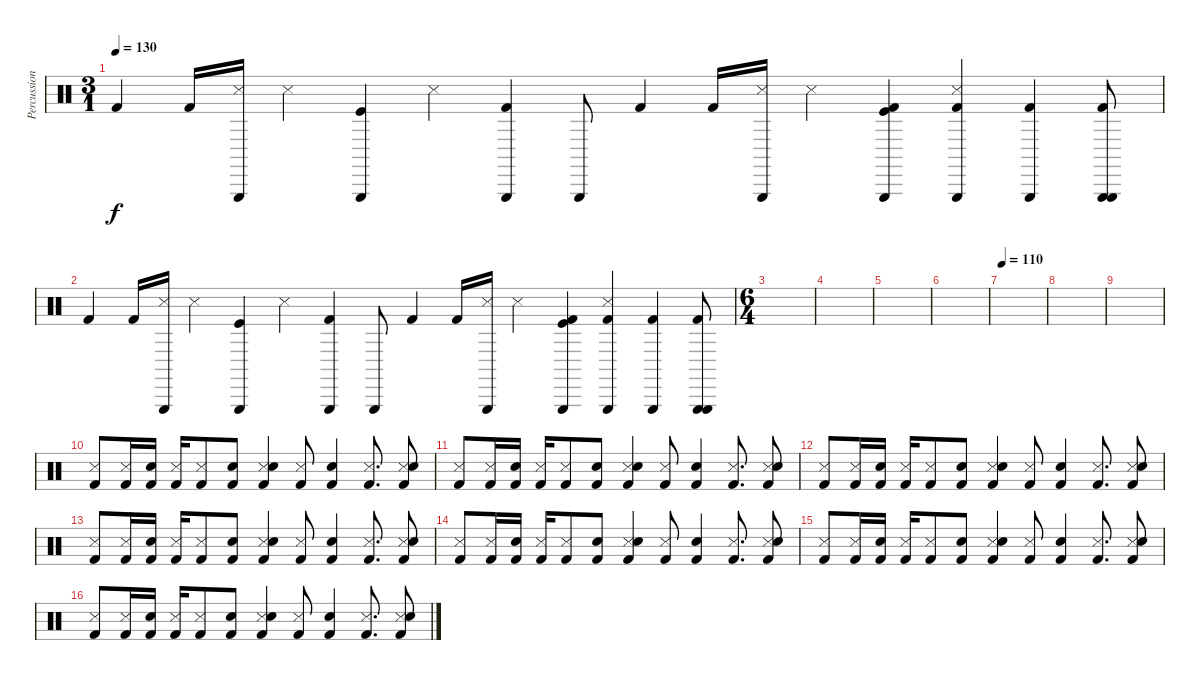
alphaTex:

\track ("Percussion" "Percussion") {instrument percussion}
\staff {score}
\articulation defaults
\ts (3 1)
\tempo 130
\clef neutral
\ks c "Kick (hit) 2".4{dy f} "Kick (hit) 2".16
("Triangle (hit)" "Snare (side stick) 3").16 "Metronome (hit)".4 ("Triangle (hit)" "Kick (hit)").4 "Snare (side stick) 3".4 ("Triangle (hit)" "Kick (hit) 2").4 "Triangle (hit)".8 "Kick (hit) 2".4 "Kick (hit) 2".16 ("Triangle (hit)" "Snare (side stick) 3").16 "Metronome (hit)".4 ("Triangle (hit)" "Kick (hit) 2" "Kick (hit)").4 ("Triangle (hit)" "Kick (hit) 2" "Snare (side stick) 3").4 ("Triangle (hit)" "Kick (hit) 2").4 ("Triangle (hit)" "Kick (hit) 2" "Triangle (hit)").8 |
"Kick (hit) 2".4 "Kick (hit) 2".16 ("Triangle (hit)" "Snare (side stick) 3").16 "Metronome (hit)".4 ("Triangle (hit)" "Kick (hit)").4 "Snare (side stick) 3".4 ("Triangle (hit)" "Kick (hit) 2").4 "Triangle (hit)".8 "Kick (hit) 2".4 "Kick (hit) 2".16 ("Triangle (hit)" "Snare (side stick) 3").16 "Metronome (hit)".4 ("Triangle (hit)" "Kick (hit) 2" "Kick (hit)").4 ("Triangle (hit)" "Kick (hit) 2" "Snare (side stick) 3").4 ("Triangle (hit)" "Kick (hit) 2").4 ("Triangle (hit)" "Kick (hit) 2" "Triangle (hit)").8 |
\ts (6 4)
|
|
|
|
\tempo 110
|
|
|
("Snare (side stick) 3" "Kick (hit) 2").8 ("Snare (side stick) 3" "Kick (hit) 2").16 ("Electric Snare (hit)" "Kick (hit) 2").16 ("Snare (side stick) 3" "Kick (hit) 2").16 ("Snare (side stick) 3" "Kick (hit) 2").8 ("Electric Snare (hit)" "Kick (hit) 2").8 ("Snare (side stick) 3" "Electric Snare (hit)" "Kick (hit) 2").4 ("Snare (side stick) 3" "Kick (hit) 2").8 ("Electric Snare (hit)" "Kick (hit) 2").4 ("Snare (side stick) 3" "Kick (hit) 2").8{d} ("Snare (side stick) 3" "Electric Snare (hit)" "Kick (hit) 2").8 |
("Snare (side stick) 3" "Kick (hit) 2").8 ("Snare (side stick) 3" "Kick (hit) 2").16 ("Electric Snare (hit)" "Kick (hit) 2").16 ("Snare (side stick) 3" "Kick (hit) 2").16 ("Snare (side stick) 3" "Kick (hit) 2").8 ("Electric Snare (hit)" "Kick (hit) 2").8 ("Snare (side stick) 3" "Electric Snare (hit)" "Kick (hit) 2").4 ("Snare (side stick) 3" "Kick (hit) 2").8 ("Electric Snare (hit)" "Kick (hit) 2").4 ("Snare (side stick) 3" "Kick (hit) 2").8{d} ("Snare (side stick) 3" "Electric Snare (hit)" "Kick (hit) 2").8 |
("Snare (side stick) 3" "Kick (hit) 2").8 ("Snare (side stick) 3" "Kick (hit) 2").16 ("Electric Snare (hit)" "Kick (hit) 2").16 ("Snare (side stick) 3" "Kick (hit) 2").16 ("Snare (side stick) 3" "Kick (hit) 2").8 ("Electric Snare (hit)" "Kick (hit) 2").8 ("Snare (side stick) 3" "Electric Snare (hit)" "Kick (hit) 2").4 ("Snare (side stick) 3" "Kick (hit) 2").8 ("Electric Snare (hit)" "Kick (hit) 2").4 ("Snare (side stick) 3" "Kick (hit) 2").8{d} ("Snare (side stick) 3" "Electric Snare (hit)" "Kick (hit) 2").8 |
("Snare (side stick) 3" "Kick (hit) 2").8 ("Snare (side stick) 3" "Kick (hit) 2").16 ("Electric Snare (hit)" "Kick (hit) 2").16 ("Snare (side stick) 3" "Kick (hit) 2").16 ("Snare (side stick) 3" "Kick (hit) 2").8 ("Electric Snare (hit)" "Kick (hit) 2").8 ("Snare (side stick) 3" "Electric Snare (hit)" "Kick (hit) 2").4 ("Snare (side stick) 3" "Kick (hit) 2").8 ("Electric Snare (hit)" "Kick (hit) 2").4 ("Snare (side stick) 3" "Kick (hit) 2").8{d} ("Snare (side stick) 3" "Electric Snare (hit)" "Kick (hit) 2").8 |
("Snare (side stick) 3" "Kick (hit) 2").8 ("Snare (side stick) 3" "Kick (hit) 2").16 ("Electric Snare (hit)" "Kick (hit) 2").16 ("Snare (side stick) 3" "Kick (hit) 2").16 ("Snare (side stick) 3" "Kick (hit) 2").8 ("Electric Snare (hit)" "Kick (hit) 2").8 ("Snare (side stick) 3" "Electric Snare (hit)" "Kick (hit) 2").4 ("Snare (side stick) 3" "Kick (hit) 2").8 ("Electric Snare (hit)" "Kick (hit) 2").4 ("Snare (side stick) 3" "Kick (hit) 2").8{d} ("Snare (side stick) 3" "Electric Snare (hit)" "Kick (hit) 2").8 |
("Snare (side stick) 3" "Kick (hit) 2").8 ("Snare (side stick) 3" "Kick (hit) 2").16 ("Electric Snare (hit)" "Kick (hit) 2").16 ("Snare (side stick) 3" "Kick (hit) 2").16 ("Snare (side stick) 3" "Kick (hit) 2").8 ("Electric Snare (hit)" "Kick (hit) 2").8 ("Snare (side stick) 3" "Electric Snare (hit)" "Kick (hit) 2").4 ("Snare (side stick) 3" "Kick (hit) 2").8 ("Electric Snare (hit)" "Kick (hit) 2").4 ("Snare (side stick) 3" "Kick (hit) 2").8{d} ("Snare (side stick) 3" "Electric Snare (hit)" "Kick (hit) 2").8 |
("Snare (side stick) 3" "Kick (hit) 2").8 ("Snare (side stick) 3" "Kick (hit) 2").16 ("Electric Snare (hit)" "Kick (hit) 2").16 ("Snare (side stick) 3" "Kick (hit) 2").16 ("Snare (side stick) 3" "Kick (hit) 2").8 ("Electric Snare (hit)" "Kick (hit) 2").8 ("Snare (side stick) 3" "Electric Snare (hit)" "Kick (hit) 2").4 ("Snare (side stick) 3" "Kick (hit) 2").8 ("Electric Snare (hit)" "Kick (hit) 2").4 ("Snare (side stick) 3" "Kick (hit) 2").8{d} ("Snare (side stick) 3" "Electric Snare (hit)" "Kick (hit) 2").8
